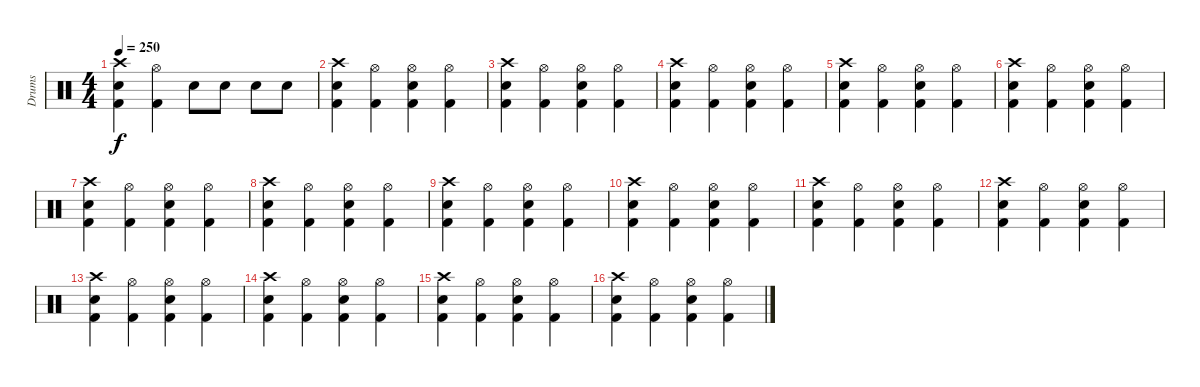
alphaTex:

\track ("Drums" "Drums") {instrument percussion}
\staff {score}
\articulation defaults
\ts (4 4)
\tempo 250
\clef neutral
\ks c
("Crash high (hit)" "Electric Snare (hit)" "Kick (hit) 2").4{dy f} ("Hi-Hat (open)" "Kick (hit) 2").4 "Electric Snare (hit)".8 "Electric Snare (hit)".8 "Electric Snare (hit)".8 "Electric Snare (hit)".8 |
("Crash high (hit)" "Electric Snare (hit)" "Kick (hit) 2").4 ("Hi-Hat (open)" "Kick (hit) 2").4 ("Hi-Hat (open)" "Electric Snare (hit)" "Kick (hit) 2").4 ("Hi-Hat (open)" "Kick (hit) 2").4 |
("Crash high (hit)" "Electric Snare (hit)" "Kick (hit) 2").4 ("Hi-Hat (open)" "Kick (hit) 2").4 ("Hi-Hat (open)" "Electric Snare (hit)" "Kick (hit) 2").4 ("Hi-Hat (open)" "Kick (hit) 2").4 |
("Crash high (hit)" "Electric Snare (hit)" "Kick (hit) 2").4 ("Hi-Hat (open)" "Kick (hit) 2").4 ("Hi-Hat (open)" "Electric Snare (hit)" "Kick (hit) 2").4 ("Hi-Hat (open)" "Kick (hit) 2").4 |
("Crash high (hit)" "Electric Snare (hit)" "Kick (hit) 2").4 ("Hi-Hat (open)" "Kick (hit) 2").4 ("Hi-Hat (open)" "Electric Snare (hit)" "Kick (hit) 2").4 ("Hi-Hat (open)" "Kick (hit) 2").4 |
("Crash high (hit)" "Electric Snare (hit)" "Kick (hit) 2").4 ("Hi-Hat (open)" "Kick (hit) 2").4 ("Hi-Hat (open)" "Electric Snare (hit)" "Kick (hit) 2").4 ("Hi-Hat (open)" "Kick (hit) 2").4 |
("Crash high (hit)" "Electric Snare (hit)" "Kick (hit) 2").4 ("Hi-Hat (open)" "Kick (hit) 2").4 ("Hi-Hat (open)" "Electric Snare (hit)" "Kick (hit) 2").4 ("Hi-Hat (open)" "Kick (hit) 2").4 |
("Crash high (hit)" "Electric Snare (hit)" "Kick (hit) 2").4 ("Hi-Hat (open)" "Kick (hit) 2").4 ("Hi-Hat (open)" "Electric Snare (hit)" "Kick (hit) 2").4 ("Hi-Hat (open)" "Kick (hit) 2").4 |
("Crash high (hit)" "Electric Snare (hit)" "Kick (hit) 2").4 ("Hi-Hat (open)" "Kick (hit) 2").4 ("Hi-Hat (open)" "Electric Snare (hit)" "Kick (hit) 2").4 ("Hi-Hat (open)" "Kick (hit) 2").4 |
("Crash high (hit)" "Electric Snare (hit)" "Kick (hit) 2").4 ("Hi-Hat (open)" "Kick (hit) 2").4 ("Hi-Hat (open)" "Electric Snare (hit)" "Kick (hit) 2").4 ("Hi-Hat (open)" "Kick (hit) 2").4 |
("Crash high (hit)" "Electric Snare (hit)" "Kick (hit) 2").4 ("Hi-Hat (open)" "Kick (hit) 2").4 ("Hi-Hat (open)" "Electric Snare (hit)" "Kick (hit) 2").4 ("Hi-Hat (open)" "Kick (hit) 2").4 |
("Crash high (hit)" "Electric Snare (hit)" "Kick (hit) 2").4 ("Hi-Hat (open)" "Kick (hit) 2").4 ("Hi-Hat (open)" "Electric Snare (hit)" "Kick (hit) 2").4 ("Hi-Hat (open)" "Kick (hit) 2").4 |
("Crash high (hit)" "Electric Snare (hit)" "Kick (hit) 2").4 ("Hi-Hat (open)" "Kick (hit) 2").4 ("Hi-Hat (open)" "Electric Snare (hit)" "Kick (hit) 2").4 ("Hi-Hat (open)" "Kick (hit) 2").4 |
("Crash high (hit)" "Electric Snare (hit)" "Kick (hit) 2").4 ("Hi-Hat (open)" "Kick (hit) 2").4 ("Hi-Hat (open)" "Electric Snare (hit)" "Kick (hit) 2").4 ("Hi-Hat (open)" "Kick (hit) 2").4 |
("Crash high (hit)" "Electric Snare (hit)" "Kick (hit) 2").4 ("Hi-Hat (open)" "Kick (hit) 2").4 ("Hi-Hat (open)" "Electric Snare (hit)" "Kick (hit) 2").4 ("Hi-Hat (open)" "Kick (hit) 2").4 |
("Crash high (hit)" "Electric Snare (hit)" "Kick (hit) 2").4 ("Hi-Hat (open)" "Kick (hit) 2").4 ("Hi-Hat (open)" "Electric Snare (hit)" "Kick (hit) 2").4 ("Hi-Hat (open)" "Kick (hit) 2").4
